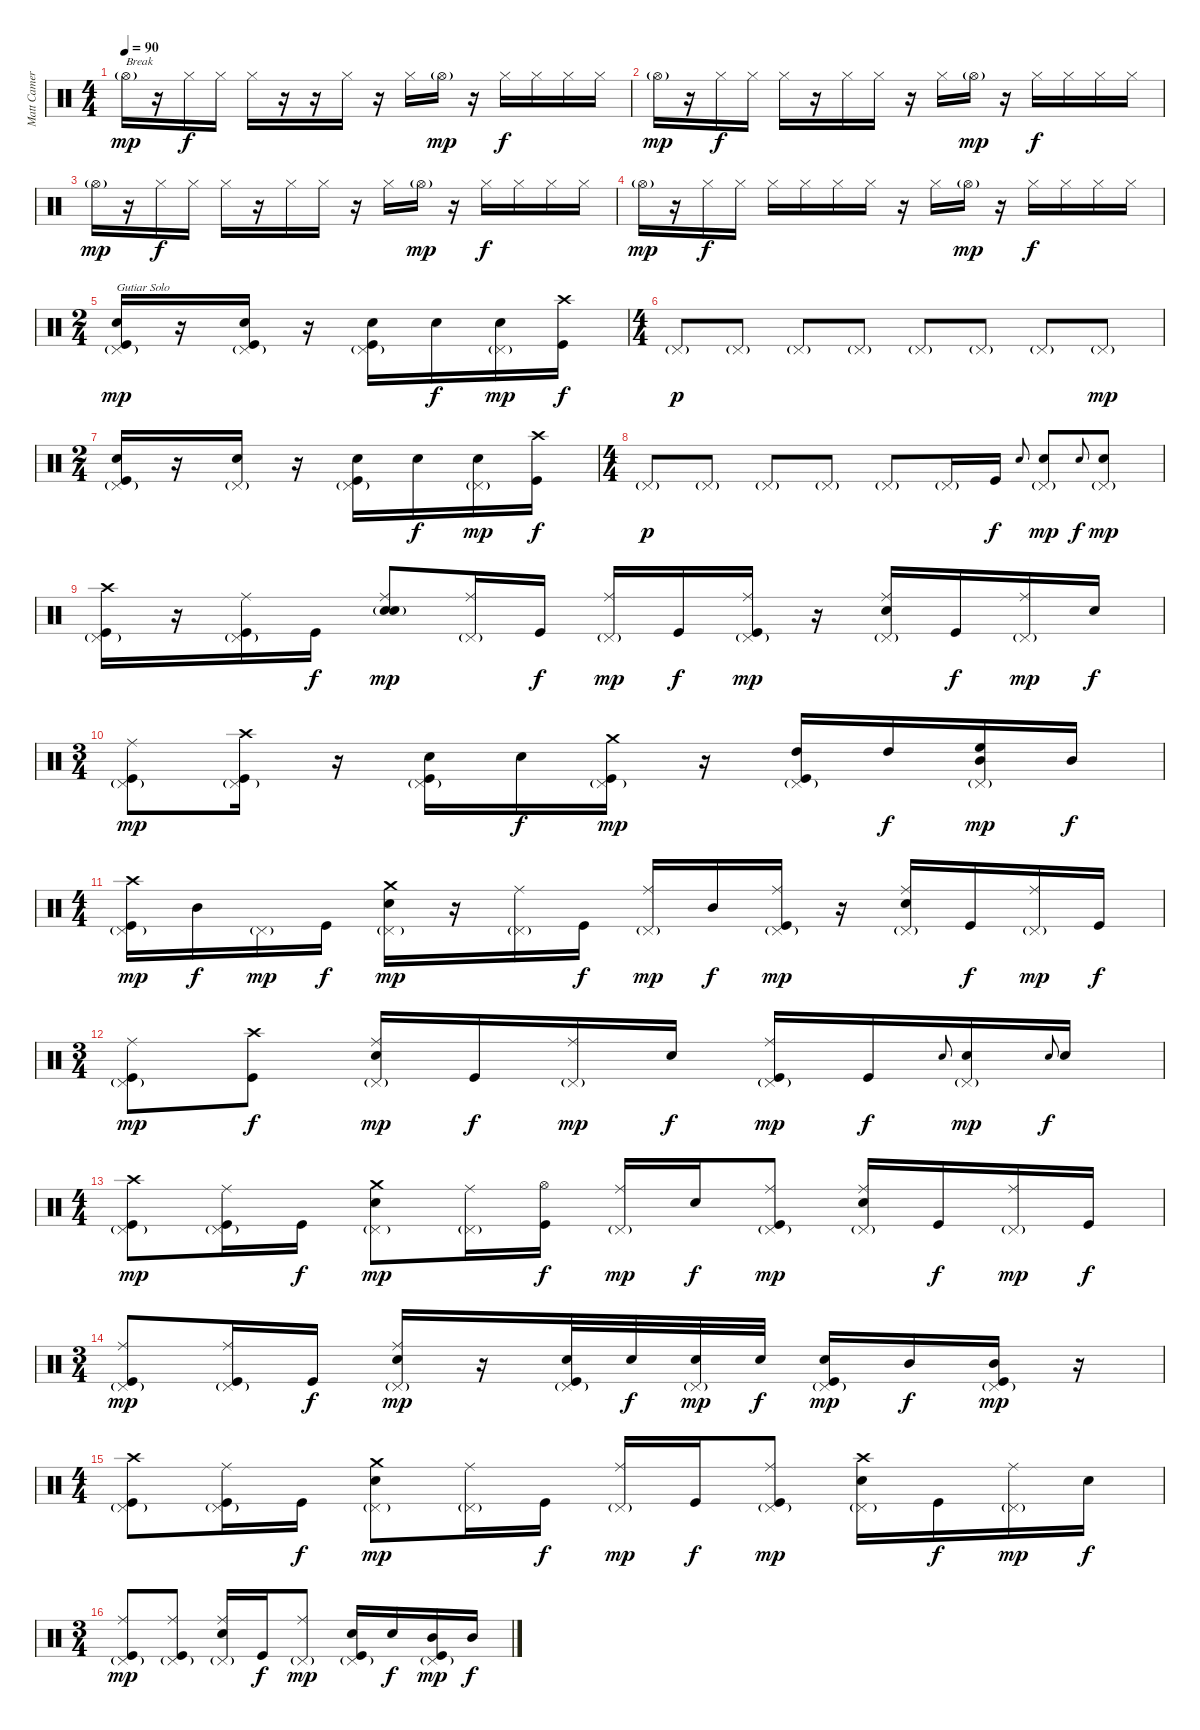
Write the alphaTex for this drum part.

\track ("Matt Cameron" "Matt Camer") {instrument percussion}
\staff {score}
\articulation defaults
\ts (4 4)
\tempo 90
\clef neutral
\ks c "Hi-Hat (open)"{g}.16{txt "Break" dy mp}
r.16 "Hi-Hat (closed)".16{dy f} "Hi-Hat (closed)".16 "Hi-Hat (closed)".16 r.16 r.16 "Hi-Hat (closed)".16 r.16 "Hi-Hat (closed)".16 "Hi-Hat (open)"{g}.16{dy mp} r.16 "Hi-Hat (closed)".16{dy f} "Hi-Hat (closed)".16 "Hi-Hat (closed)".16 "Hi-Hat (closed)".16 |
"Hi-Hat (open)"{g}.16{dy mp} r.16 "Hi-Hat (closed)".16{dy f} "Hi-Hat (closed)".16 "Hi-Hat (closed)".16 r.16 "Hi-Hat (closed)".16 "Hi-Hat (closed)".16 r.16 "Hi-Hat (closed)".16 "Hi-Hat (open)"{g}.16{dy mp} r.16 "Hi-Hat (closed)".16{dy f} "Hi-Hat (closed)".16 "Hi-Hat (closed)".16 "Hi-Hat (closed)".16 |
"Hi-Hat (open)"{g}.16{dy mp} r.16 "Hi-Hat (closed)".16{dy f} "Hi-Hat (closed)".16 "Hi-Hat (closed)".16 r.16 "Hi-Hat (closed)".16 "Hi-Hat (closed)".16 r.16 "Hi-Hat (closed)".16 "Hi-Hat (open)"{g}.16{dy mp} r.16 "Hi-Hat (closed)".16{dy f} "Hi-Hat (closed)".16 "Hi-Hat (closed)".16 "Hi-Hat (closed)".16 |
"Hi-Hat (open)"{g}.16{dy mp} r.16 "Hi-Hat (closed)".16{dy f} "Hi-Hat (closed)".16 "Hi-Hat (closed)".16 "Hi-Hat (closed)".16 "Hi-Hat (closed)".16 "Hi-Hat (closed)".16 r.16 "Hi-Hat (closed)".16 "Hi-Hat (open)"{g}.16{dy mp} r.16 "Hi-Hat (closed)".16{dy f} "Hi-Hat (closed)".16 "Hi-Hat (closed)".16 "Hi-Hat (closed)".16 |
\ts (2 4)
("Electric Snare (hit)" "Pedal Hi-Hat (hit)"{g} "Kick (hit)").16{txt "Gutiar Solo" dy mp} r.16 ("Electric Snare (hit)" "Pedal Hi-Hat (hit)"{g} "Kick (hit)").16 r.16 ("Electric Snare (hit)" "Pedal Hi-Hat (hit)"{g} "Kick (hit)").16 "Electric Snare (hit)".16{dy f} ("Electric Snare (hit)" "Pedal Hi-Hat (hit)"{g}).16{dy mp} ("Crash high (hit)" "Kick (hit)").16{dy f} |
\ts (4 4)
"Pedal Hi-Hat (hit)"{g}.8{dy p} "Pedal Hi-Hat (hit)"{g}.8 "Pedal Hi-Hat (hit)"{g}.8 "Pedal Hi-Hat (hit)"{g}.8 "Pedal Hi-Hat (hit)"{g}.8 "Pedal Hi-Hat (hit)"{g}.8 "Pedal Hi-Hat (hit)"{g}.8 "Pedal Hi-Hat (hit)"{g}.8{dy mp} |
\ts (2 4)
("Electric Snare (hit)" "Pedal Hi-Hat (hit)"{g} "Kick (hit)").16 r.16 ("Electric Snare (hit)" "Pedal Hi-Hat (hit)"{g}).16 r.16 ("Electric Snare (hit)" "Pedal Hi-Hat (hit)"{g} "Kick (hit)").16 "Electric Snare (hit)".16{dy f} ("Electric Snare (hit)" "Pedal Hi-Hat (hit)"{g}).16{dy mp} ("Crash high (hit)" "Kick (hit)").16{dy f} |
\ts (4 4)
"Pedal Hi-Hat (hit)"{g}.8{dy p} "Pedal Hi-Hat (hit)"{g}.8 "Pedal Hi-Hat (hit)"{g}.8 "Pedal Hi-Hat (hit)"{g}.8 "Pedal Hi-Hat (hit)"{g}.8 "Pedal Hi-Hat (hit)"{g}.16 "Kick (hit)".16{dy f} "Electric Snare (hit)".8{gr onbeat} ("Electric Snare (hit)" "Pedal Hi-Hat (hit)"{g}).8{dy mp} "Electric Snare (hit)".8{gr onbeat dy f} ("Electric Snare (hit)" "Pedal Hi-Hat (hit)"{g}).8{dy mp} |
("Crash high (hit)" "Pedal Hi-Hat (hit)"{g} "Kick (hit)").16 r.16 ("Ride (middle)" "Pedal Hi-Hat (hit)"{g} "Kick (hit)").16 "Kick (hit)".16{dy f} ("Ride (middle)" "Electric Snare (hit)" "Electric Snare (hit)"{g}).8{dy mp} ("Ride (middle)" "Pedal Hi-Hat (hit)"{g}).16 "Kick (hit)".16{dy f} ("Ride (middle)" "Pedal Hi-Hat (hit)"{g}).16{dy mp} "Kick (hit)".16{dy f} ("Ride (middle)" "Pedal Hi-Hat (hit)"{g} "Kick (hit)").16{dy mp} r.16 ("Ride (middle)" "Electric Snare (hit)" "Pedal Hi-Hat (hit)"{g}).16 "Kick (hit)".16{dy f} ("Ride (middle)" "Pedal Hi-Hat (hit)"{g}).16{dy mp} "Electric Snare (hit)".16{dy f} |
\ts (3 4)
("Ride (middle)" "Pedal Hi-Hat (hit)"{g} "Kick (hit)").8{dy mp} ("Crash high (hit)" "Pedal Hi-Hat (hit)"{g} "Kick (hit)").16 r.16 ("Electric Snare (hit)" "Pedal Hi-Hat (hit)"{g} "Kick (hit)").16 "Electric Snare (hit)".16{dy f} ("Crash medium (hit)" "Pedal Hi-Hat (hit)"{g} "Kick (hit)").16{dy mp} r.16 ("High Tom (hit)" "Pedal Hi-Hat (hit)"{g} "Kick (hit)").16 "High Tom (hit)".16{dy f} ("Mid Tom (hit)" "Pedal Hi-Hat (hit)"{g} "High Floor Tom (hit)").16{dy mp} "Mid Tom (hit)".16{dy f} |
\ts (4 4)
("Crash high (hit)" "Pedal Hi-Hat (hit)"{g} "Kick (hit)").16{dy mp} "Mid Tom (hit)".16{dy f} "Pedal Hi-Hat (hit)"{g}.16{dy mp} "Kick (hit)".16{dy f} ("Crash medium (hit)" "Electric Snare (hit)" "Pedal Hi-Hat (hit)"{g}).16{dy mp} r.16 ("Ride (middle)" "Pedal Hi-Hat (hit)"{g}).16 "Kick (hit)".16{dy f} ("Ride (middle)" "Pedal Hi-Hat (hit)"{g}).16{dy mp} "Mid Tom (hit)".16{dy f} ("Ride (middle)" "Pedal Hi-Hat (hit)"{g} "Kick (hit)").16{dy mp} r.16 ("Ride (middle)" "Electric Snare (hit)" "Pedal Hi-Hat (hit)"{g}).16 "Kick (hit)".16{dy f} ("Ride (middle)" "Pedal Hi-Hat (hit)"{g}).16{dy mp} "Kick (hit)".16{dy f} |
\ts (3 4)
("Ride (middle)" "Pedal Hi-Hat (hit)"{g} "Kick (hit)").8{dy mp} ("Crash high (hit)" "Kick (hit)").8{dy f} ("Ride (middle)" "Electric Snare (hit)" "Pedal Hi-Hat (hit)"{g}).16{dy mp} "Kick (hit)".16{dy f} ("Ride (middle)" "Pedal Hi-Hat (hit)"{g}).16{dy mp} "Electric Snare (hit)".16{dy f} ("Ride (middle)" "Pedal Hi-Hat (hit)"{g} "Kick (hit)").16{dy mp} "Kick (hit)".16{dy f} "Electric Snare (hit)".8{gr onbeat} ("Electric Snare (hit)" "Pedal Hi-Hat (hit)"{g}).16{dy mp} "Electric Snare (hit)".8{gr onbeat dy f} "Electric Snare (hit)".16 |
\ts (4 4)
("Crash high (hit)" "Pedal Hi-Hat (hit)"{g} "Kick (hit)").8{dy mp} ("Ride (middle)" "Pedal Hi-Hat (hit)"{g} "Kick (hit)").16 "Kick (hit)".16{dy f} ("Crash medium (hit)" "Electric Snare (hit)" "Pedal Hi-Hat (hit)"{g}).8{dy mp} ("Ride (middle)" "Pedal Hi-Hat (hit)"{g}).16 ("Hi-Hat (open)" "Kick (hit)").16{dy f} ("Ride (middle)" "Pedal Hi-Hat (hit)"{g}).16{dy mp} "Electric Snare (hit)".16{dy f} ("Ride (middle)" "Pedal Hi-Hat (hit)"{g} "Kick (hit)").8{dy mp} ("Ride (middle)" "Electric Snare (hit)" "Pedal Hi-Hat (hit)"{g}).16 "Kick (hit)".16{dy f} ("Ride (middle)" "Pedal Hi-Hat (hit)"{g}).16{dy mp} "Kick (hit)".16{dy f} |
\ts (3 4)
("Ride (middle)" "Pedal Hi-Hat (hit)"{g} "Kick (hit)").8{dy mp} ("Ride (middle)" "Pedal Hi-Hat (hit)"{g} "Kick (hit)").16 "Kick (hit)".16{dy f} ("Ride (middle)" "Electric Snare (hit)" "Pedal Hi-Hat (hit)"{g}).16{dy mp} r.16 ("Electric Snare (hit)" "Pedal Hi-Hat (hit)"{g} "Kick (hit)").32 "Electric Snare (hit)".32{dy f} ("Electric Snare (hit)" "Pedal Hi-Hat (hit)"{g}).32{dy mp} "Electric Snare (hit)".32{dy f} ("Electric Snare (hit)" "Pedal Hi-Hat (hit)"{g} "Kick (hit)").16{dy mp} "Mid Tom (hit)".16{dy f} ("Mid Tom (hit)" "Pedal Hi-Hat (hit)"{g} "Kick (hit)").16{dy mp} r.16 |
\ts (4 4)
("Crash high (hit)" "Pedal Hi-Hat (hit)"{g} "Kick (hit)").8 ("Ride (middle)" "Pedal Hi-Hat (hit)"{g} "Kick (hit)").16 "Kick (hit)".16{dy f} ("Crash medium (hit)" "Electric Snare (hit)" "Pedal Hi-Hat (hit)"{g}).8{dy mp} ("Ride (middle)" "Pedal Hi-Hat (hit)"{g}).16 "Kick (hit)".16{dy f} ("Ride (middle)" "Pedal Hi-Hat (hit)"{g}).16{dy mp} "Kick (hit)".16{dy f} ("Ride (middle)" "Pedal Hi-Hat (hit)"{g} "Kick (hit)").8{dy mp} ("Crash high (hit)" "Electric Snare (hit)" "Pedal Hi-Hat (hit)"{g}).16 "Kick (hit)".16{dy f} ("Ride (middle)" "Pedal Hi-Hat (hit)"{g}).16{dy mp} "Electric Snare (hit)".16{dy f} |
\ts (3 4)
("Ride (middle)" "Pedal Hi-Hat (hit)"{g} "Kick (hit)").8{dy mp} ("Ride (middle)" "Pedal Hi-Hat (hit)"{g} "Kick (hit)").8 ("Ride (middle)" "Electric Snare (hit)" "Pedal Hi-Hat (hit)"{g}).16 "Kick (hit)".16{dy f} ("Ride (middle)" "Pedal Hi-Hat (hit)"{g}).8{dy mp} ("Electric Snare (hit)" "Pedal Hi-Hat (hit)"{g} "Kick (hit)").16 "Electric Snare (hit)".16{dy f} ("Mid Tom (hit)" "Pedal Hi-Hat (hit)"{g} "Kick (hit)").16{dy mp} "Mid Tom (hit)".16{dy f}
